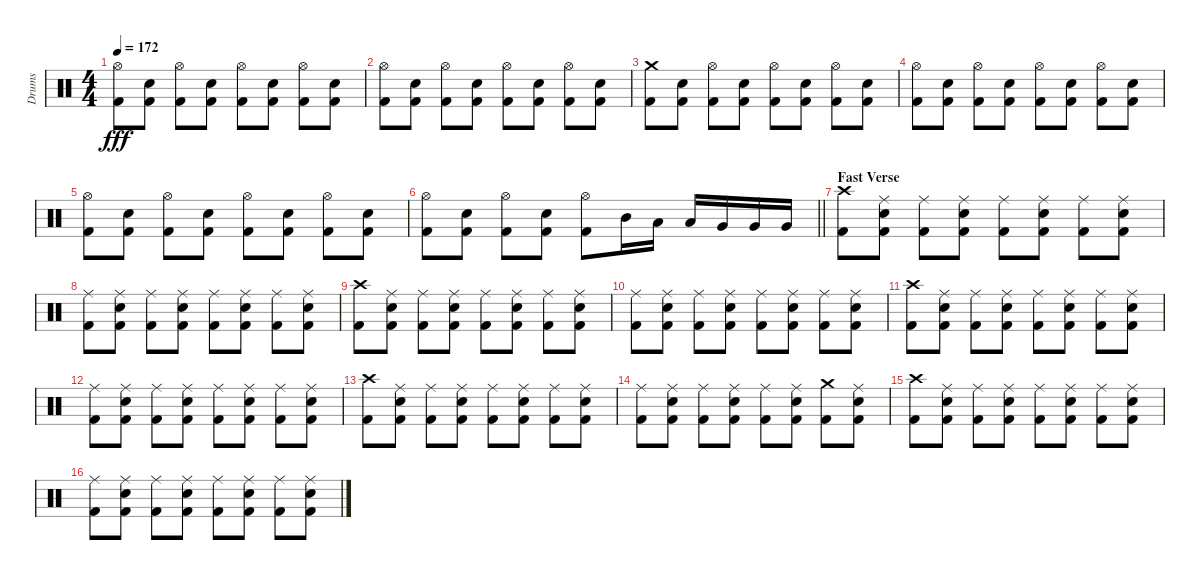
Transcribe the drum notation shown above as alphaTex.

\track ("Drums" "Drums") {instrument percussion}
\staff {score}
\articulation defaults
\ts (4 4)
\tempo 172
\clef neutral
\ks c
("Hi-Hat (open)" "Kick (hit) 2").8{dy fff} ("Electric Snare (hit)" "Kick (hit) 2").8 ("Hi-Hat (open)" "Kick (hit) 2").8 ("Electric Snare (hit)" "Kick (hit) 2").8 ("Hi-Hat (open)" "Kick (hit) 2").8 ("Electric Snare (hit)" "Kick (hit) 2").8 ("Hi-Hat (open)" "Kick (hit) 2").8 ("Electric Snare (hit)" "Kick (hit) 2").8 |
("Hi-Hat (open)" "Kick (hit) 2").8 ("Electric Snare (hit)" "Kick (hit) 2").8 ("Hi-Hat (open)" "Kick (hit) 2").8 ("Electric Snare (hit)" "Kick (hit) 2").8 ("Hi-Hat (open)" "Kick (hit) 2").8 ("Electric Snare (hit)" "Kick (hit) 2").8 ("Hi-Hat (open)" "Kick (hit) 2").8 ("Electric Snare (hit)" "Kick (hit) 2").8 |
("Crash medium (hit)" "Kick (hit) 2").8 ("Electric Snare (hit)" "Kick (hit) 2").8 ("Hi-Hat (open)" "Kick (hit) 2").8 ("Electric Snare (hit)" "Kick (hit) 2").8 ("Hi-Hat (open)" "Kick (hit) 2").8 ("Electric Snare (hit)" "Kick (hit) 2").8 ("Hi-Hat (open)" "Kick (hit) 2").8 ("Electric Snare (hit)" "Kick (hit) 2").8 |
("Hi-Hat (open)" "Kick (hit) 2").8 ("Electric Snare (hit)" "Kick (hit) 2").8 ("Hi-Hat (open)" "Kick (hit) 2").8 ("Electric Snare (hit)" "Kick (hit) 2").8 ("Hi-Hat (open)" "Kick (hit) 2").8 ("Electric Snare (hit)" "Kick (hit) 2").8 ("Hi-Hat (open)" "Kick (hit) 2").8 ("Electric Snare (hit)" "Kick (hit) 2").8 |
("Hi-Hat (open)" "Kick (hit) 2").8 ("Electric Snare (hit)" "Kick (hit) 2").8 ("Hi-Hat (open)" "Kick (hit) 2").8 ("Electric Snare (hit)" "Kick (hit) 2").8 ("Hi-Hat (open)" "Kick (hit) 2").8 ("Electric Snare (hit)" "Kick (hit) 2").8 ("Hi-Hat (open)" "Kick (hit) 2").8 ("Electric Snare (hit)" "Kick (hit) 2").8 |
\barLineRight lightlight
("Hi-Hat (open)" "Kick (hit) 2").8 ("Electric Snare (hit)" "Kick (hit) 2").8 ("Hi-Hat (open)" "Kick (hit) 2").8 ("Electric Snare (hit)" "Kick (hit) 2").8 ("Hi-Hat (open)" "Kick (hit) 2").8 "Mid Tom (hit)".16 "Low Tom (hit)".16 "Low Tom (hit)".16 "Very Low Tom (hit)".16 "Very Low Tom (hit)".16 "Very Low Tom (hit)".16 |
\section ("" "Fast Verse")
("Crash high (hit)" "Kick (hit) 2").8 ("Ride (middle)" "Electric Snare (hit)" "Kick (hit) 2").8 ("Ride (middle)" "Kick (hit) 2").8 ("Ride (middle)" "Electric Snare (hit)" "Kick (hit) 2").8 ("Ride (middle)" "Kick (hit) 2").8 ("Ride (middle)" "Electric Snare (hit)" "Kick (hit) 2").8 ("Ride (middle)" "Kick (hit) 2").8 ("Ride (middle)" "Electric Snare (hit)" "Kick (hit) 2").8 |
("Ride (middle)" "Kick (hit) 2").8 ("Ride (middle)" "Electric Snare (hit)" "Kick (hit) 2").8 ("Ride (middle)" "Kick (hit) 2").8 ("Ride (middle)" "Electric Snare (hit)" "Kick (hit) 2").8 ("Ride (middle)" "Kick (hit) 2").8 ("Ride (middle)" "Electric Snare (hit)" "Kick (hit) 2").8 ("Ride (middle)" "Kick (hit) 2").8 ("Ride (middle)" "Electric Snare (hit)" "Kick (hit) 2").8 |
("Crash high (hit)" "Kick (hit) 2").8 ("Ride (middle)" "Electric Snare (hit)" "Kick (hit) 2").8 ("Ride (middle)" "Kick (hit) 2").8 ("Ride (middle)" "Electric Snare (hit)" "Kick (hit) 2").8 ("Ride (middle)" "Kick (hit) 2").8 ("Ride (middle)" "Electric Snare (hit)" "Kick (hit) 2").8 ("Ride (middle)" "Kick (hit) 2").8 ("Ride (middle)" "Electric Snare (hit)" "Kick (hit) 2").8 |
("Ride (middle)" "Kick (hit) 2").8 ("Ride (middle)" "Electric Snare (hit)" "Kick (hit) 2").8 ("Ride (middle)" "Kick (hit) 2").8 ("Ride (middle)" "Electric Snare (hit)" "Kick (hit) 2").8 ("Ride (middle)" "Kick (hit) 2").8 ("Ride (middle)" "Electric Snare (hit)" "Kick (hit) 2").8 ("Ride (middle)" "Kick (hit) 2").8 ("Ride (middle)" "Electric Snare (hit)" "Kick (hit) 2").8 |
("Crash high (hit)" "Kick (hit) 2").8 ("Ride (middle)" "Electric Snare (hit)" "Kick (hit) 2").8 ("Ride (middle)" "Kick (hit) 2").8 ("Ride (middle)" "Electric Snare (hit)" "Kick (hit) 2").8 ("Ride (middle)" "Kick (hit) 2").8 ("Ride (middle)" "Electric Snare (hit)" "Kick (hit) 2").8 ("Ride (middle)" "Kick (hit) 2").8 ("Ride (middle)" "Electric Snare (hit)" "Kick (hit) 2").8 |
("Ride (middle)" "Kick (hit) 2").8 ("Ride (middle)" "Electric Snare (hit)" "Kick (hit) 2").8 ("Ride (middle)" "Kick (hit) 2").8 ("Ride (middle)" "Electric Snare (hit)" "Kick (hit) 2").8 ("Ride (middle)" "Kick (hit) 2").8 ("Ride (middle)" "Electric Snare (hit)" "Kick (hit) 2").8 ("Ride (middle)" "Kick (hit) 2").8 ("Ride (middle)" "Electric Snare (hit)" "Kick (hit) 2").8 |
("Crash high (hit)" "Kick (hit) 2").8 ("Ride (middle)" "Electric Snare (hit)" "Kick (hit) 2").8 ("Ride (middle)" "Kick (hit) 2").8 ("Ride (middle)" "Electric Snare (hit)" "Kick (hit) 2").8 ("Ride (middle)" "Kick (hit) 2").8 ("Ride (middle)" "Electric Snare (hit)" "Kick (hit) 2").8 ("Ride (middle)" "Kick (hit) 2").8 ("Ride (middle)" "Electric Snare (hit)" "Kick (hit) 2").8 |
("Ride (middle)" "Kick (hit) 2").8 ("Ride (middle)" "Electric Snare (hit)" "Kick (hit) 2").8 ("Ride (middle)" "Kick (hit) 2").8 ("Ride (middle)" "Electric Snare (hit)" "Kick (hit) 2").8 ("Ride (middle)" "Kick (hit) 2").8 ("Ride (middle)" "Electric Snare (hit)" "Kick (hit) 2").8 ("Crash medium (hit)" "Kick (hit) 2").8 ("Ride (middle)" "Electric Snare (hit)" "Kick (hit) 2").8 |
("Crash high (hit)" "Kick (hit) 2").8 ("Ride (middle)" "Electric Snare (hit)" "Kick (hit) 2").8 ("Ride (middle)" "Kick (hit) 2").8 ("Ride (middle)" "Electric Snare (hit)" "Kick (hit) 2").8 ("Ride (middle)" "Kick (hit) 2").8 ("Ride (middle)" "Electric Snare (hit)" "Kick (hit) 2").8 ("Ride (middle)" "Kick (hit) 2").8 ("Ride (middle)" "Electric Snare (hit)" "Kick (hit) 2").8 |
("Ride (middle)" "Kick (hit) 2").8 ("Ride (middle)" "Electric Snare (hit)" "Kick (hit) 2").8 ("Ride (middle)" "Kick (hit) 2").8 ("Ride (middle)" "Electric Snare (hit)" "Kick (hit) 2").8 ("Ride (middle)" "Kick (hit) 2").8 ("Ride (middle)" "Electric Snare (hit)" "Kick (hit) 2").8 ("Ride (middle)" "Kick (hit) 2").8 ("Ride (middle)" "Electric Snare (hit)" "Kick (hit) 2").8
